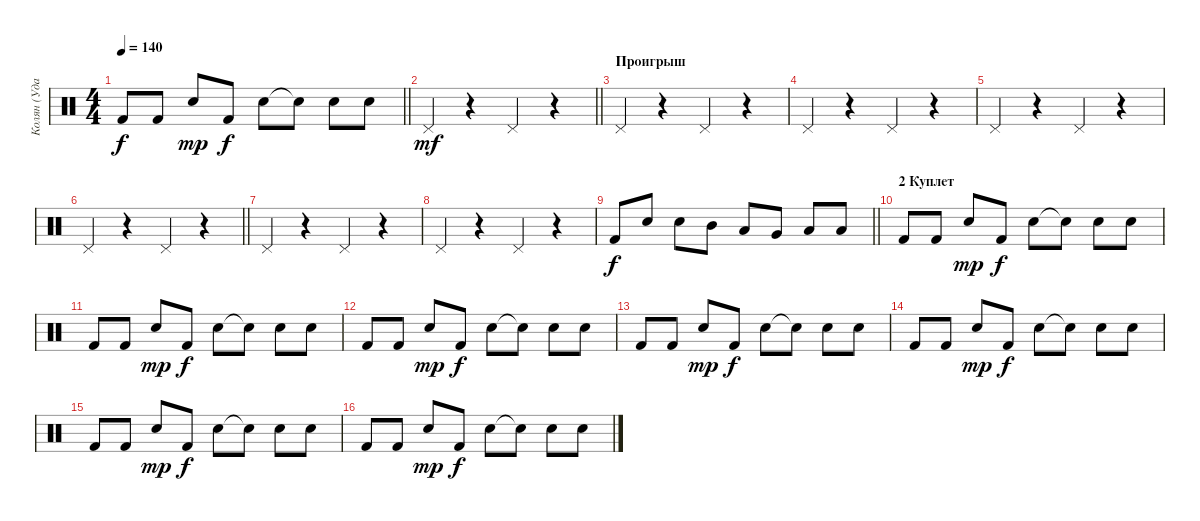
\track ("Колян (Ударные)" "Колян (Уда") {instrument percussion}
\staff {score}
\articulation defaults
\ts (4 4)
\tempo 140
\clef neutral
\barLineRight lightlight
\ks c "Kick (hit) 2".8{dy f} "Kick (hit) 2".8 "Snare (hit) 2".8{dy mp} "Kick (hit) 2".8{dy f} "Snare (hit) 2".8 "Snare (hit)"{t}.8 "Snare (hit) 2".8 "Snare (hit) 2".8
|
\barLineRight lightlight "Pedal Hi-Hat (hit)".4{dy mf}
r.4 "Pedal Hi-Hat (hit)".4 r.4 |
\section ("" "Проигрыш")
"Pedal Hi-Hat (hit)".4 r.4 "Pedal Hi-Hat (hit)".4 r.4 |
"Pedal Hi-Hat (hit)".4 r.4 "Pedal Hi-Hat (hit)".4 r.4 |
"Pedal Hi-Hat (hit)".4 r.4 "Pedal Hi-Hat (hit)".4 r.4 |
\barLineRight lightlight "Pedal Hi-Hat (hit)".4
r.4 "Pedal Hi-Hat (hit)".4 r.4 |
"Pedal Hi-Hat (hit)".4 r.4 "Pedal Hi-Hat (hit)".4 r.4 |
"Pedal Hi-Hat (hit)".4 r.4 "Pedal Hi-Hat (hit)".4 r.4 |
\barLineRight lightlight "Kick (hit) 2".8{dy f} "Snare (hit) 2".8 "Snare (hit) 2".8 "Mid Tom (hit)".8 "Low Tom (hit)".8 "Very Low Tom (hit)".8 "Low Floor Tom (hit)".8 "Low Floor Tom (hit)".8
|
\section ("" "2 Куплет")
"Kick (hit) 2".8 "Kick (hit) 2".8 "Snare (hit) 2".8{dy mp} "Kick (hit) 2".8{dy f} "Snare (hit) 2".8 "Snare (hit)"{t}.8 "Snare (hit) 2".8 "Snare (hit) 2".8 |
"Kick (hit) 2".8 "Kick (hit) 2".8 "Snare (hit) 2".8{dy mp} "Kick (hit) 2".8{dy f} "Snare (hit) 2".8 "Snare (hit)"{t}.8 "Snare (hit) 2".8 "Snare (hit) 2".8 |
"Kick (hit) 2".8 "Kick (hit) 2".8 "Snare (hit) 2".8{dy mp} "Kick (hit) 2".8{dy f} "Snare (hit) 2".8 "Snare (hit)"{t}.8 "Snare (hit) 2".8 "Snare (hit) 2".8 |
"Kick (hit) 2".8 "Kick (hit) 2".8 "Snare (hit) 2".8{dy mp} "Kick (hit) 2".8{dy f} "Snare (hit) 2".8 "Snare (hit)"{t}.8 "Snare (hit) 2".8 "Snare (hit) 2".8 |
"Kick (hit) 2".8 "Kick (hit) 2".8 "Snare (hit) 2".8{dy mp} "Kick (hit) 2".8{dy f} "Snare (hit) 2".8 "Snare (hit)"{t}.8 "Snare (hit) 2".8 "Snare (hit) 2".8 |
"Kick (hit) 2".8 "Kick (hit) 2".8 "Snare (hit) 2".8{dy mp} "Kick (hit) 2".8{dy f} "Snare (hit) 2".8 "Snare (hit)"{t}.8 "Snare (hit) 2".8 "Snare (hit) 2".8 |
"Kick (hit) 2".8 "Kick (hit) 2".8 "Snare (hit) 2".8{dy mp} "Kick (hit) 2".8{dy f} "Snare (hit) 2".8 "Snare (hit)"{t}.8 "Snare (hit) 2".8 "Snare (hit) 2".8
